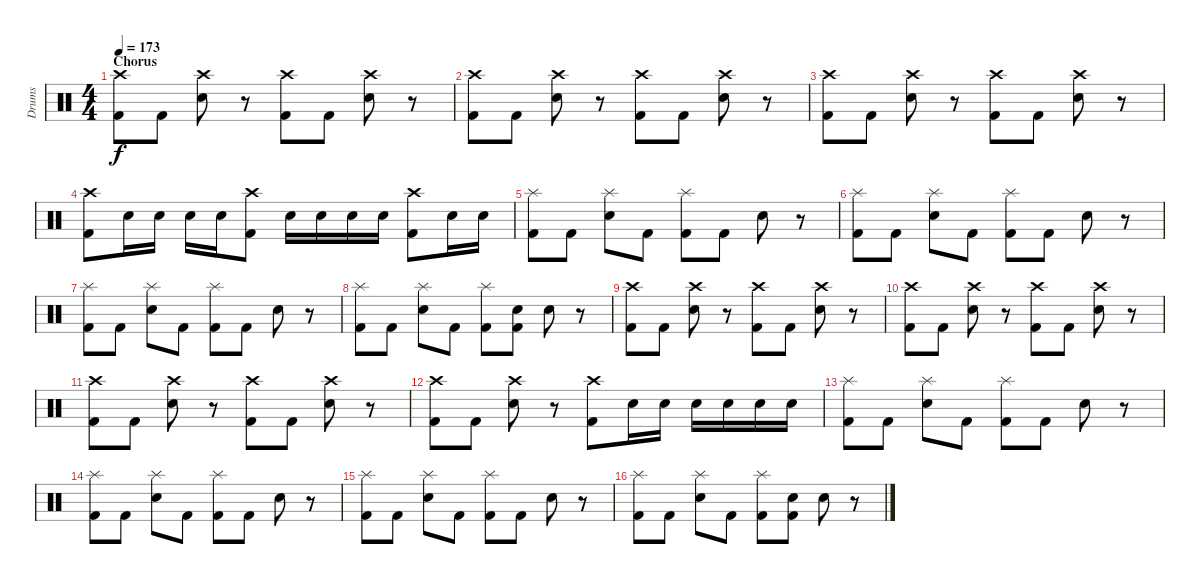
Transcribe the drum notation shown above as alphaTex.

\track ("Drums" "Drums") {instrument percussion}
\staff {score}
\articulation defaults
\ts (4 4)
\section ("" "Chorus")
\tempo 173
\clef neutral
\ks c
("Crash high (hit)" "Kick (hit) 2").8{dy f} "Kick (hit) 2".8 ("Crash high (hit)" "Snare (hit) 2").8 r.8 ("Crash high (hit)" "Kick (hit) 2").8 "Kick (hit) 2".8 ("Crash high (hit)" "Snare (hit) 2").8 r.8 |
("Crash high (hit)" "Kick (hit) 2").8 "Kick (hit) 2".8 ("Crash high (hit)" "Snare (hit) 2").8 r.8 ("Crash high (hit)" "Kick (hit) 2").8 "Kick (hit) 2".8 ("Crash high (hit)" "Snare (hit) 2").8 r.8 |
("Crash high (hit)" "Kick (hit) 2").8 "Kick (hit) 2".8 ("Crash high (hit)" "Snare (hit) 2").8 r.8 ("Crash high (hit)" "Kick (hit) 2").8 "Kick (hit) 2".8 ("Crash high (hit)" "Snare (hit) 2").8 r.8 |
("Crash high (hit)" "Kick (hit) 2").8 "Snare (hit) 2".16 "Snare (hit) 2".16 "Snare (hit) 2".16 "Snare (hit) 2".16 ("Crash high (hit)" "Kick (hit) 2").8 "Snare (hit) 2".16 "Snare (hit) 2".16 "Snare (hit) 2".16 "Snare (hit) 2".16 ("Crash high (hit)" "Kick (hit) 2").8 "Snare (hit) 2".16 "Snare (hit) 2".16 |
("Splash (hit)" "Kick (hit) 2").8 "Kick (hit) 2".8 ("Splash (hit)" "Snare (hit) 2").8 "Kick (hit) 2".8 ("Splash (hit)" "Kick (hit) 2").8 "Kick (hit) 2".8 "Snare (hit) 2".8 r.8 |
("Splash (hit)" "Kick (hit) 2").8 "Kick (hit) 2".8 ("Splash (hit)" "Snare (hit) 2").8 "Kick (hit) 2".8 ("Splash (hit)" "Kick (hit) 2").8 "Kick (hit) 2".8 "Snare (hit) 2".8 r.8 |
("Splash (hit)" "Kick (hit) 2").8 "Kick (hit) 2".8 ("Splash (hit)" "Snare (hit) 2").8 "Kick (hit) 2".8 ("Splash (hit)" "Kick (hit) 2").8 "Kick (hit) 2".8 "Snare (hit) 2".8 r.8 |
("Splash (hit)" "Kick (hit) 2").8 "Kick (hit) 2".8 ("Splash (hit)" "Snare (hit) 2").8 "Kick (hit) 2".8 ("Splash (hit)" "Kick (hit) 2").8 ("Snare (hit) 2" "Kick (hit) 2").8 "Snare (hit) 2".8 r.8 |
("Crash high (hit)" "Kick (hit) 2").8 "Kick (hit) 2".8 ("Crash high (hit)" "Snare (hit) 2").8 r.8 ("Crash high (hit)" "Kick (hit) 2").8 "Kick (hit) 2".8 ("Crash high (hit)" "Snare (hit) 2").8 r.8 |
("Crash high (hit)" "Kick (hit) 2").8 "Kick (hit) 2".8 ("Crash high (hit)" "Snare (hit) 2").8 r.8 ("Crash high (hit)" "Kick (hit) 2").8 "Kick (hit) 2".8 ("Crash high (hit)" "Snare (hit) 2").8 r.8 |
("Crash high (hit)" "Kick (hit) 2").8 "Kick (hit) 2".8 ("Crash high (hit)" "Snare (hit) 2").8 r.8 ("Crash high (hit)" "Kick (hit) 2").8 "Kick (hit) 2".8 ("Crash high (hit)" "Snare (hit) 2").8 r.8 |
("Crash high (hit)" "Kick (hit) 2").8 "Kick (hit) 2".8 ("Crash high (hit)" "Snare (hit) 2").8 r.8 ("Crash high (hit)" "Kick (hit) 2").8 "Snare (hit) 2".16 "Snare (hit) 2".16 "Snare (hit) 2".16 "Snare (hit) 2".16 "Snare (hit) 2".16 "Snare (hit) 2".16 |
("Splash (hit)" "Kick (hit) 2").8 "Kick (hit) 2".8 ("Splash (hit)" "Snare (hit) 2").8 "Kick (hit) 2".8 ("Splash (hit)" "Kick (hit) 2").8 "Kick (hit) 2".8 "Snare (hit) 2".8 r.8 |
("Splash (hit)" "Kick (hit) 2").8 "Kick (hit) 2".8 ("Splash (hit)" "Snare (hit) 2").8 "Kick (hit) 2".8 ("Splash (hit)" "Kick (hit) 2").8 "Kick (hit) 2".8 "Snare (hit) 2".8 r.8 |
("Splash (hit)" "Kick (hit) 2").8 "Kick (hit) 2".8 ("Splash (hit)" "Snare (hit) 2").8 "Kick (hit) 2".8 ("Splash (hit)" "Kick (hit) 2").8 "Kick (hit) 2".8 "Snare (hit) 2".8 r.8 |
("Splash (hit)" "Kick (hit) 2").8 "Kick (hit) 2".8 ("Splash (hit)" "Snare (hit) 2").8 "Kick (hit) 2".8 ("Splash (hit)" "Kick (hit) 2").8 ("Snare (hit) 2" "Kick (hit) 2").8 "Snare (hit) 2".8 r.8
